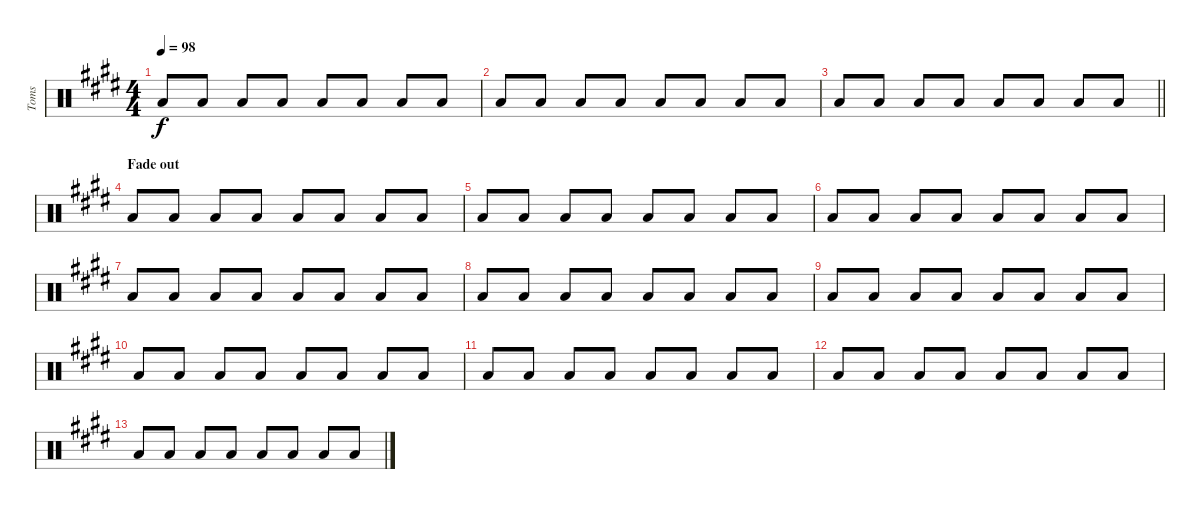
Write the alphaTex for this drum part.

\track ("Toms" "Toms") {instrument percussion}
\staff {score}
\articulation defaults
\ts (4 4)
\tempo 98
\clef neutral
\ks c#minor "Low Tom (hit)".8{dy f} "Low Floor Tom (hit)".8 "Low Floor Tom (hit)".8 "Low Floor Tom (hit)".8 "Low Tom (hit)".8 "Low Floor Tom (hit)".8 "Low Floor Tom (hit)".8 "Low Floor Tom (hit)".8
|
"Low Tom (hit)".8 "Low Floor Tom (hit)".8 "Low Floor Tom (hit)".8 "Low Floor Tom (hit)".8 "Low Tom (hit)".8 "Low Floor Tom (hit)".8 "Low Floor Tom (hit)".8 "Low Floor Tom (hit)".8 |
\barLineRight lightlight "Low Tom (hit)".8 "Low Floor Tom (hit)".8 "Low Floor Tom (hit)".8 "Low Floor Tom (hit)".8 "Low Tom (hit)".8 "Low Floor Tom (hit)".8 "Low Floor Tom (hit)".8 "Low Floor Tom (hit)".8
|
\section ("" "Fade out")
"Low Tom (hit)".8 "Low Floor Tom (hit)".8 "Low Floor Tom (hit)".8 "Low Floor Tom (hit)".8 "Low Tom (hit)".8 "Low Floor Tom (hit)".8 "Low Floor Tom (hit)".8 "Low Floor Tom (hit)".8 |
"Low Tom (hit)".8 "Low Floor Tom (hit)".8 "Low Floor Tom (hit)".8 "Low Floor Tom (hit)".8 "Low Tom (hit)".8 "Low Floor Tom (hit)".8 "Low Floor Tom (hit)".8 "Low Floor Tom (hit)".8 |
"Low Tom (hit)".8 "Low Floor Tom (hit)".8 "Low Floor Tom (hit)".8 "Low Floor Tom (hit)".8 "Low Tom (hit)".8 "Low Floor Tom (hit)".8 "Low Floor Tom (hit)".8 "Low Floor Tom (hit)".8 |
"Low Tom (hit)".8 "Low Floor Tom (hit)".8 "Low Floor Tom (hit)".8 "Low Floor Tom (hit)".8 "Low Tom (hit)".8 "Low Floor Tom (hit)".8 "Low Floor Tom (hit)".8 "Low Floor Tom (hit)".8 |
"Low Tom (hit)".8 "Low Floor Tom (hit)".8 "Low Floor Tom (hit)".8 "Low Floor Tom (hit)".8 "Low Tom (hit)".8 "Low Floor Tom (hit)".8 "Low Floor Tom (hit)".8 "Low Floor Tom (hit)".8 |
"Low Tom (hit)".8 "Low Floor Tom (hit)".8 "Low Floor Tom (hit)".8 "Low Floor Tom (hit)".8 "Low Tom (hit)".8 "Low Floor Tom (hit)".8 "Low Floor Tom (hit)".8 "Low Floor Tom (hit)".8 |
"Low Tom (hit)".8 "Low Floor Tom (hit)".8 "Low Floor Tom (hit)".8 "Low Floor Tom (hit)".8 "Low Tom (hit)".8 "Low Floor Tom (hit)".8 "Low Floor Tom (hit)".8 "Low Floor Tom (hit)".8 |
"Low Tom (hit)".8 "Low Floor Tom (hit)".8 "Low Floor Tom (hit)".8 "Low Floor Tom (hit)".8 "Low Tom (hit)".8 "Low Floor Tom (hit)".8 "Low Floor Tom (hit)".8 "Low Floor Tom (hit)".8 |
"Low Tom (hit)".8 "Low Floor Tom (hit)".8 "Low Floor Tom (hit)".8 "Low Floor Tom (hit)".8 "Low Tom (hit)".8 "Low Floor Tom (hit)".8 "Low Floor Tom (hit)".8 "Low Floor Tom (hit)".8 |
"Low Tom (hit)".8 "Low Floor Tom (hit)".8 "Low Floor Tom (hit)".8 "Low Floor Tom (hit)".8 "Low Tom (hit)".8 "Low Floor Tom (hit)".8 "Low Floor Tom (hit)".8 "Low Floor Tom (hit)".8
